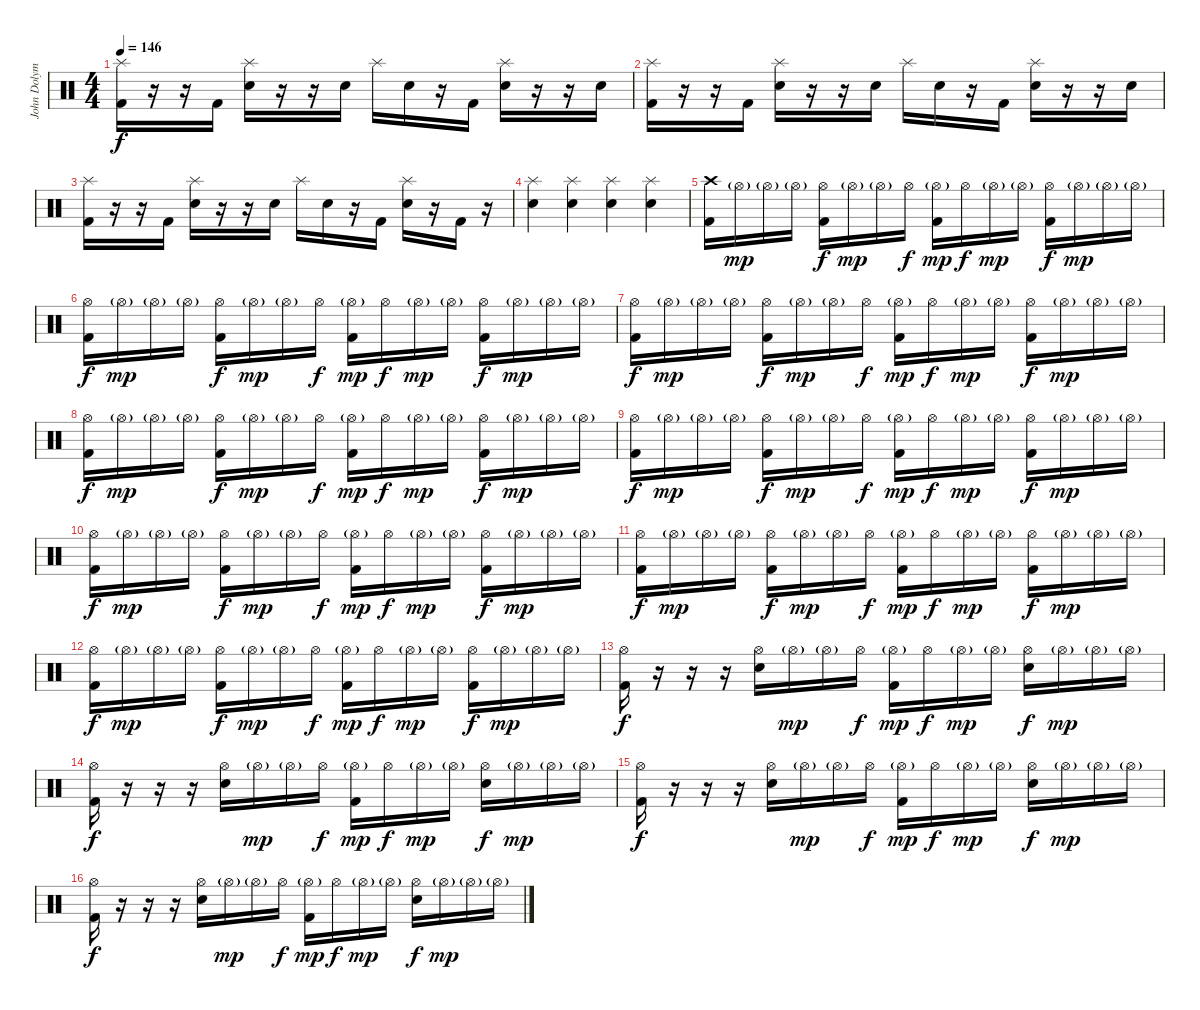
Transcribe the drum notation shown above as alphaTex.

\track ("John Dolyman" "John Dolym") {instrument percussion}
\staff {score}
\articulation defaults
\ts (4 4)
\tempo 146
\clef neutral
\ks c
("Splash (hit)" "Kick (hit) 2").16{dy f} r.16 r.16 "Kick (hit) 2".16 ("Splash (hit)" "Electric Snare (hit)").16 r.16 r.16 "Electric Snare (hit)".16 "Splash (hit)".16 "Electric Snare (hit)".16 r.16 "Kick (hit) 2".16 ("Splash (hit)" "Electric Snare (hit)").16 r.16 r.16 "Electric Snare (hit)".16 |
("Splash (hit)" "Kick (hit) 2").16 r.16 r.16 "Kick (hit) 2".16 ("Splash (hit)" "Electric Snare (hit)").16 r.16 r.16 "Electric Snare (hit)".16 "Splash (hit)".16 "Electric Snare (hit)".16 r.16 "Kick (hit) 2".16 ("Splash (hit)" "Electric Snare (hit)").16 r.16 r.16 "Electric Snare (hit)".16 |
("Splash (hit)" "Kick (hit) 2").16 r.16 r.16 "Kick (hit) 2".16 ("Splash (hit)" "Electric Snare (hit)").16 r.16 r.16 "Electric Snare (hit)".16 "Splash (hit)".16 "Electric Snare (hit)".16 r.16 "Kick (hit) 2".16 ("Splash (hit)" "Electric Snare (hit)").16 r.16 "Kick (hit) 2".16 r.16 |
("Splash (hit)" "Electric Snare (hit)").4 ("Splash (hit)" "Electric Snare (hit)").4 ("Splash (hit)" "Electric Snare (hit)").4 ("Splash (hit)" "Electric Snare (hit)").4 |
("Crash high (hit)" "Kick (hit) 2").16 "Hi-Hat (open)"{g}.16{dy mp} "Hi-Hat (open)"{g}.16 "Hi-Hat (open)"{g}.16 ("Hi-Hat (open)" "Kick (hit) 2").16{dy f} "Hi-Hat (open)"{g}.16{dy mp} "Hi-Hat (open)"{g}.16 "Hi-Hat (open)".16{dy f} ("Hi-Hat (open)"{g} "Kick (hit) 2").16{dy mp} "Hi-Hat (open)".16{dy f} "Hi-Hat (open)"{g}.16{dy mp} "Hi-Hat (open)"{g}.16 ("Hi-Hat (open)" "Kick (hit) 2").16{dy f} "Hi-Hat (open)"{g}.16{dy mp} "Hi-Hat (open)"{g}.16 "Hi-Hat (open)"{g}.16 |
("Hi-Hat (open)" "Kick (hit) 2").16{dy f} "Hi-Hat (open)"{g}.16{dy mp} "Hi-Hat (open)"{g}.16 "Hi-Hat (open)"{g}.16 ("Hi-Hat (open)" "Kick (hit) 2").16{dy f} "Hi-Hat (open)"{g}.16{dy mp} "Hi-Hat (open)"{g}.16 "Hi-Hat (open)".16{dy f} ("Hi-Hat (open)"{g} "Kick (hit) 2").16{dy mp} "Hi-Hat (open)".16{dy f} "Hi-Hat (open)"{g}.16{dy mp} "Hi-Hat (open)"{g}.16 ("Hi-Hat (open)" "Kick (hit) 2").16{dy f} "Hi-Hat (open)"{g}.16{dy mp} "Hi-Hat (open)"{g}.16 "Hi-Hat (open)"{g}.16 |
("Hi-Hat (open)" "Kick (hit) 2").16{dy f} "Hi-Hat (open)"{g}.16{dy mp} "Hi-Hat (open)"{g}.16 "Hi-Hat (open)"{g}.16 ("Hi-Hat (open)" "Kick (hit) 2").16{dy f} "Hi-Hat (open)"{g}.16{dy mp} "Hi-Hat (open)"{g}.16 "Hi-Hat (open)".16{dy f} ("Hi-Hat (open)"{g} "Kick (hit) 2").16{dy mp} "Hi-Hat (open)".16{dy f} "Hi-Hat (open)"{g}.16{dy mp} "Hi-Hat (open)"{g}.16 ("Hi-Hat (open)" "Kick (hit) 2").16{dy f} "Hi-Hat (open)"{g}.16{dy mp} "Hi-Hat (open)"{g}.16 "Hi-Hat (open)"{g}.16 |
("Hi-Hat (open)" "Kick (hit) 2").16{dy f} "Hi-Hat (open)"{g}.16{dy mp} "Hi-Hat (open)"{g}.16 "Hi-Hat (open)"{g}.16 ("Hi-Hat (open)" "Kick (hit) 2").16{dy f} "Hi-Hat (open)"{g}.16{dy mp} "Hi-Hat (open)"{g}.16 "Hi-Hat (open)".16{dy f} ("Hi-Hat (open)"{g} "Kick (hit) 2").16{dy mp} "Hi-Hat (open)".16{dy f} "Hi-Hat (open)"{g}.16{dy mp} "Hi-Hat (open)"{g}.16 ("Hi-Hat (open)" "Kick (hit) 2").16{dy f} "Hi-Hat (open)"{g}.16{dy mp} "Hi-Hat (open)"{g}.16 "Hi-Hat (open)"{g}.16 |
("Hi-Hat (open)" "Kick (hit) 2").16{dy f} "Hi-Hat (open)"{g}.16{dy mp} "Hi-Hat (open)"{g}.16 "Hi-Hat (open)"{g}.16 ("Hi-Hat (open)" "Kick (hit) 2").16{dy f} "Hi-Hat (open)"{g}.16{dy mp} "Hi-Hat (open)"{g}.16 "Hi-Hat (open)".16{dy f} ("Hi-Hat (open)"{g} "Kick (hit) 2").16{dy mp} "Hi-Hat (open)".16{dy f} "Hi-Hat (open)"{g}.16{dy mp} "Hi-Hat (open)"{g}.16 ("Hi-Hat (open)" "Kick (hit) 2").16{dy f} "Hi-Hat (open)"{g}.16{dy mp} "Hi-Hat (open)"{g}.16 "Hi-Hat (open)"{g}.16 |
("Hi-Hat (open)" "Kick (hit) 2").16{dy f} "Hi-Hat (open)"{g}.16{dy mp} "Hi-Hat (open)"{g}.16 "Hi-Hat (open)"{g}.16 ("Hi-Hat (open)" "Kick (hit) 2").16{dy f} "Hi-Hat (open)"{g}.16{dy mp} "Hi-Hat (open)"{g}.16 "Hi-Hat (open)".16{dy f} ("Hi-Hat (open)"{g} "Kick (hit) 2").16{dy mp} "Hi-Hat (open)".16{dy f} "Hi-Hat (open)"{g}.16{dy mp} "Hi-Hat (open)"{g}.16 ("Hi-Hat (open)" "Kick (hit) 2").16{dy f} "Hi-Hat (open)"{g}.16{dy mp} "Hi-Hat (open)"{g}.16 "Hi-Hat (open)"{g}.16 |
("Hi-Hat (open)" "Kick (hit) 2").16{dy f} "Hi-Hat (open)"{g}.16{dy mp} "Hi-Hat (open)"{g}.16 "Hi-Hat (open)"{g}.16 ("Hi-Hat (open)" "Kick (hit) 2").16{dy f} "Hi-Hat (open)"{g}.16{dy mp} "Hi-Hat (open)"{g}.16 "Hi-Hat (open)".16{dy f} ("Hi-Hat (open)"{g} "Kick (hit) 2").16{dy mp} "Hi-Hat (open)".16{dy f} "Hi-Hat (open)"{g}.16{dy mp} "Hi-Hat (open)"{g}.16 ("Hi-Hat (open)" "Kick (hit) 2").16{dy f} "Hi-Hat (open)"{g}.16{dy mp} "Hi-Hat (open)"{g}.16 "Hi-Hat (open)"{g}.16 |
("Hi-Hat (open)" "Kick (hit) 2").16{dy f} "Hi-Hat (open)"{g}.16{dy mp} "Hi-Hat (open)"{g}.16 "Hi-Hat (open)"{g}.16 ("Hi-Hat (open)" "Kick (hit) 2").16{dy f} "Hi-Hat (open)"{g}.16{dy mp} "Hi-Hat (open)"{g}.16 "Hi-Hat (open)".16{dy f} ("Hi-Hat (open)"{g} "Kick (hit) 2").16{dy mp} "Hi-Hat (open)".16{dy f} "Hi-Hat (open)"{g}.16{dy mp} "Hi-Hat (open)"{g}.16 ("Hi-Hat (open)" "Kick (hit) 2").16{dy f} "Hi-Hat (open)"{g}.16{dy mp} "Hi-Hat (open)"{g}.16 "Hi-Hat (open)"{g}.16 |
("Hi-Hat (open)" "Kick (hit) 2").16{dy f} r.16 r.16 r.16 ("Hi-Hat (open)" "Electric Snare (hit)").16 "Hi-Hat (open)"{g}.16{dy mp} "Hi-Hat (open)"{g}.16 "Hi-Hat (open)".16{dy f} ("Hi-Hat (open)"{g} "Kick (hit) 2").16{dy mp} "Hi-Hat (open)".16{dy f} "Hi-Hat (open)"{g}.16{dy mp} "Hi-Hat (open)"{g}.16 ("Hi-Hat (open)" "Electric Snare (hit)").16{dy f} "Hi-Hat (open)"{g}.16{dy mp} "Hi-Hat (open)"{g}.16 "Hi-Hat (open)"{g}.16 |
("Hi-Hat (open)" "Kick (hit) 2").16{dy f} r.16 r.16 r.16 ("Hi-Hat (open)" "Electric Snare (hit)").16 "Hi-Hat (open)"{g}.16{dy mp} "Hi-Hat (open)"{g}.16 "Hi-Hat (open)".16{dy f} ("Hi-Hat (open)"{g} "Kick (hit) 2").16{dy mp} "Hi-Hat (open)".16{dy f} "Hi-Hat (open)"{g}.16{dy mp} "Hi-Hat (open)"{g}.16 ("Hi-Hat (open)" "Electric Snare (hit)").16{dy f} "Hi-Hat (open)"{g}.16{dy mp} "Hi-Hat (open)"{g}.16 "Hi-Hat (open)"{g}.16 |
("Hi-Hat (open)" "Kick (hit) 2").16{dy f} r.16 r.16 r.16 ("Hi-Hat (open)" "Electric Snare (hit)").16 "Hi-Hat (open)"{g}.16{dy mp} "Hi-Hat (open)"{g}.16 "Hi-Hat (open)".16{dy f} ("Hi-Hat (open)"{g} "Kick (hit) 2").16{dy mp} "Hi-Hat (open)".16{dy f} "Hi-Hat (open)"{g}.16{dy mp} "Hi-Hat (open)"{g}.16 ("Hi-Hat (open)" "Electric Snare (hit)").16{dy f} "Hi-Hat (open)"{g}.16{dy mp} "Hi-Hat (open)"{g}.16 "Hi-Hat (open)"{g}.16 |
("Hi-Hat (open)" "Kick (hit) 2").16{dy f} r.16 r.16 r.16 ("Hi-Hat (open)" "Electric Snare (hit)").16 "Hi-Hat (open)"{g}.16{dy mp} "Hi-Hat (open)"{g}.16 "Hi-Hat (open)".16{dy f} ("Hi-Hat (open)"{g} "Kick (hit) 2").16{dy mp} "Hi-Hat (open)".16{dy f} "Hi-Hat (open)"{g}.16{dy mp} "Hi-Hat (open)"{g}.16 ("Hi-Hat (open)" "Electric Snare (hit)").16{dy f} "Hi-Hat (open)"{g}.16{dy mp} "Hi-Hat (open)"{g}.16 "Hi-Hat (open)"{g}.16
